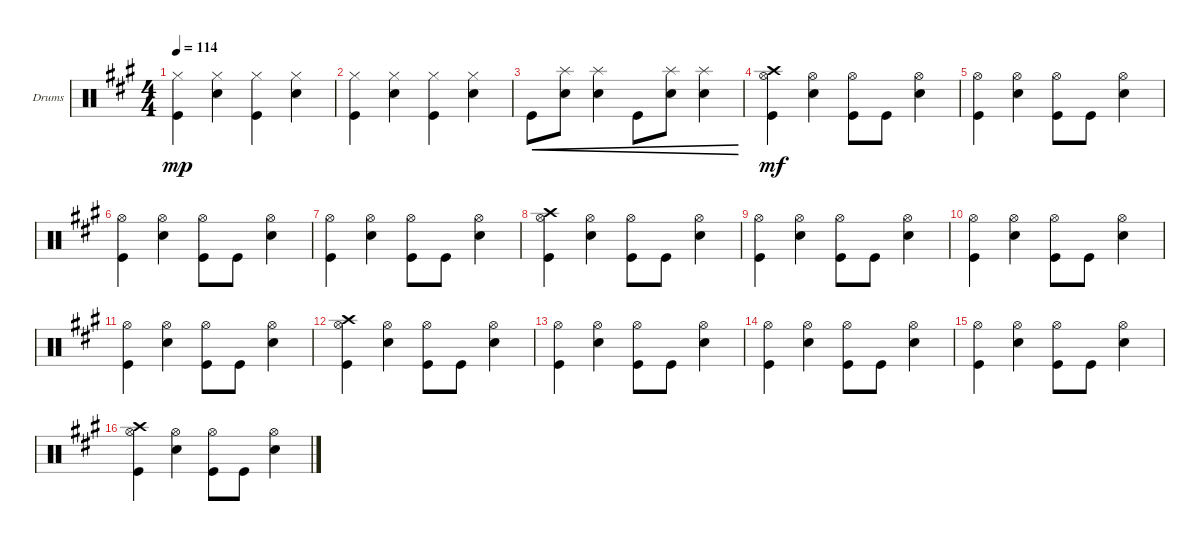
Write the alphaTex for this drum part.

\defaultSystemsLayout 4
\bracketExtendMode groupsimilarinstruments
\firstSystemTrackNameOrientation horizontal
\otherSystemsTrackNameOrientation horizontal
\track ("Drumkit" "Drums") {instrument percussion}
\staff {score}
\articulation defaults
\ts (4 4)
\tempo 114
\clef neutral
\ks f#minor
("Hi-Hat (closed)" "Kick (hit)").4{dy mp} ("Hi-Hat (closed)" "Snare (hit) 2").4 ("Hi-Hat (closed)" "Kick (hit)").4 ("Hi-Hat (closed)" "Snare (hit) 2").4 |
("Hi-Hat (closed)" "Kick (hit)").4 ("Hi-Hat (closed)" "Snare (hit) 2").4 ("Hi-Hat (closed)" "Kick (hit)").4 ("Hi-Hat (closed)" "Snare (hit) 2").4 |
"Kick (hit)".8{cre} ("Snare (hit) 2" "Splash (hit)").8{cre} ("Snare (hit) 2" "Splash (hit)").4{cre} "Kick (hit)".8{cre} ("Snare (hit) 2" "Splash (hit)").8{cre} ("Snare (hit) 2" "Splash (hit)").4{cre} |
("Hi-Hat (open)" "Kick (hit)" "Crash high (hit)").4{dy mf} ("Hi-Hat (open)" "Snare (hit) 2").4 ("Hi-Hat (open)" "Kick (hit)").8 "Kick (hit)".8 ("Hi-Hat (open)" "Snare (hit) 2").4 |
("Hi-Hat (open)" "Kick (hit)").4 ("Hi-Hat (open)" "Snare (hit) 2").4 ("Hi-Hat (open)" "Kick (hit)").8 "Kick (hit)".8 ("Hi-Hat (open)" "Snare (hit) 2").4 |
("Hi-Hat (open)" "Kick (hit)").4 ("Hi-Hat (open)" "Snare (hit) 2").4 ("Hi-Hat (open)" "Kick (hit)").8 "Kick (hit)".8 ("Hi-Hat (open)" "Snare (hit) 2").4 |
("Hi-Hat (open)" "Kick (hit)").4 ("Hi-Hat (open)" "Snare (hit) 2").4 ("Hi-Hat (open)" "Kick (hit)").8 "Kick (hit)".8 ("Hi-Hat (open)" "Snare (hit) 2").4 |
("Hi-Hat (open)" "Kick (hit)" "Crash high (hit)").4 ("Hi-Hat (open)" "Snare (hit) 2").4 ("Hi-Hat (open)" "Kick (hit)").8 "Kick (hit)".8 ("Hi-Hat (open)" "Snare (hit) 2").4 |
("Hi-Hat (open)" "Kick (hit)").4 ("Hi-Hat (open)" "Snare (hit) 2").4 ("Hi-Hat (open)" "Kick (hit)").8 "Kick (hit)".8 ("Hi-Hat (open)" "Snare (hit) 2").4 |
("Hi-Hat (open)" "Kick (hit)").4 ("Hi-Hat (open)" "Snare (hit) 2").4 ("Hi-Hat (open)" "Kick (hit)").8 "Kick (hit)".8 ("Hi-Hat (open)" "Snare (hit) 2").4 |
("Hi-Hat (open)" "Kick (hit)").4 ("Hi-Hat (open)" "Snare (hit) 2").4 ("Hi-Hat (open)" "Kick (hit)").8 "Kick (hit)".8 ("Hi-Hat (open)" "Snare (hit) 2").4 |
("Hi-Hat (open)" "Kick (hit)" "Crash high (hit)").4 ("Hi-Hat (open)" "Snare (hit) 2").4 ("Hi-Hat (open)" "Kick (hit)").8 "Kick (hit)".8 ("Hi-Hat (open)" "Snare (hit) 2").4 |
("Hi-Hat (open)" "Kick (hit)").4 ("Hi-Hat (open)" "Snare (hit) 2").4 ("Hi-Hat (open)" "Kick (hit)").8 "Kick (hit)".8 ("Hi-Hat (open)" "Snare (hit) 2").4 |
("Hi-Hat (open)" "Kick (hit)").4 ("Hi-Hat (open)" "Snare (hit) 2").4 ("Hi-Hat (open)" "Kick (hit)").8 "Kick (hit)".8 ("Hi-Hat (open)" "Snare (hit) 2").4 |
("Hi-Hat (open)" "Kick (hit)").4 ("Hi-Hat (open)" "Snare (hit) 2").4 ("Hi-Hat (open)" "Kick (hit)").8 "Kick (hit)".8 ("Hi-Hat (open)" "Snare (hit) 2").4 |
("Hi-Hat (open)" "Kick (hit)" "Crash high (hit)").4 ("Hi-Hat (open)" "Snare (hit) 2").4 ("Hi-Hat (open)" "Kick (hit)").8 "Kick (hit)".8 ("Hi-Hat (open)" "Snare (hit) 2").4
